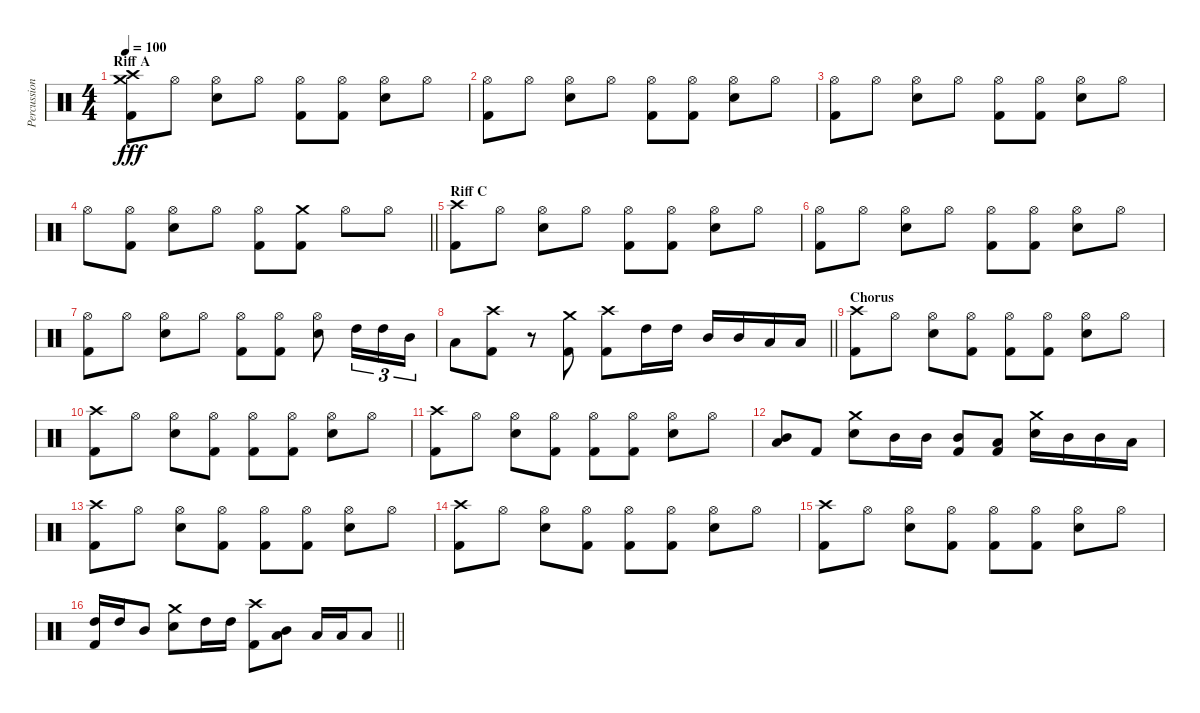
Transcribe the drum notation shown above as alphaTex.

\track ("Percussion" "Percussion") {instrument percussion}
\staff {score}
\articulation defaults
\ts (4 4)
\section ("" "Riff A")
\tempo 100
\clef neutral
\ks c
("Crash high (hit)" "Crash medium (hit)" "Kick (hit) 2").8{dy fff} "Hi-Hat (open)".8 ("Hi-Hat (open)" "Electric Snare (hit)").8 "Hi-Hat (open)".8 ("Hi-Hat (open)" "Kick (hit) 2").8 ("Hi-Hat (open)" "Kick (hit) 2").8 ("Hi-Hat (open)" "Electric Snare (hit)").8 "Hi-Hat (open)".8 |
("Hi-Hat (open)" "Kick (hit) 2").8 "Hi-Hat (open)".8 ("Hi-Hat (open)" "Electric Snare (hit)").8 "Hi-Hat (open)".8 ("Hi-Hat (open)" "Kick (hit) 2").8 ("Hi-Hat (open)" "Kick (hit) 2").8 ("Hi-Hat (open)" "Electric Snare (hit)").8 "Hi-Hat (open)".8 |
("Hi-Hat (open)" "Kick (hit) 2").8 "Hi-Hat (open)".8 ("Hi-Hat (open)" "Electric Snare (hit)").8 "Hi-Hat (open)".8 ("Hi-Hat (open)" "Kick (hit) 2").8 ("Hi-Hat (open)" "Kick (hit) 2").8 ("Hi-Hat (open)" "Electric Snare (hit)").8 "Hi-Hat (open)".8 |
\barLineRight lightlight "Hi-Hat (open)".8
("Hi-Hat (open)" "Kick (hit) 2").8 ("Hi-Hat (open)" "Electric Snare (hit)").8 "Hi-Hat (open)".8 ("Hi-Hat (open)" "Kick (hit) 2").8 ("Crash medium (hit)" "Kick (hit) 2").8 "Hi-Hat (open)".8 "Hi-Hat (open)".8 |
\section ("" "Riff C")
("Crash high (hit)" "Kick (hit) 2").8 "Hi-Hat (open)".8 ("Hi-Hat (open)" "Electric Snare (hit)").8 "Hi-Hat (open)".8 ("Hi-Hat (open)" "Kick (hit) 2").8 ("Hi-Hat (open)" "Kick (hit) 2").8 ("Hi-Hat (open)" "Electric Snare (hit)").8 "Hi-Hat (open)".8 |
("Hi-Hat (open)" "Kick (hit) 2").8 "Hi-Hat (open)".8 ("Hi-Hat (open)" "Electric Snare (hit)").8 "Hi-Hat (open)".8 ("Hi-Hat (open)" "Kick (hit) 2").8 ("Hi-Hat (open)" "Kick (hit) 2").8 ("Hi-Hat (open)" "Electric Snare (hit)").8 "Hi-Hat (open)".8 |
("Hi-Hat (open)" "Kick (hit) 2").8 "Hi-Hat (open)".8 ("Hi-Hat (open)" "Electric Snare (hit)").8 "Hi-Hat (open)".8 ("Hi-Hat (open)" "Kick (hit) 2").8 ("Hi-Hat (open)" "Kick (hit) 2").8 ("Hi-Hat (open)" "Electric Snare (hit)").8 "High Tom (hit)".16{tu (3 2)} "High Tom (hit)".16{tu (3 2)} "Mid Tom (hit)".16{tu (3 2)} |
\barLineRight lightlight "Low Tom (hit)".8
("Crash high (hit)" "Kick (hit) 2").8 r.8 ("Crash medium (hit)" "Kick (hit) 2").8 ("Crash high (hit)" "Kick (hit) 2").8 "High Tom (hit)".16 "High Tom (hit)".16 "Mid Tom (hit)".16 "Mid Tom (hit)".16 "Low Tom (hit)".16 "Low Tom (hit)".16 |
\section ("" "Chorus")
("Crash high (hit)" "Kick (hit) 2").8 "Hi-Hat (open)".8 ("Hi-Hat (open)" "Electric Snare (hit)").8 ("Hi-Hat (open)" "Kick (hit) 2").8 ("Hi-Hat (open)" "Kick (hit) 2").8 ("Hi-Hat (open)" "Kick (hit) 2").8 ("Hi-Hat (open)" "Electric Snare (hit)").8 "Hi-Hat (open)".8 |
("Crash high (hit)" "Kick (hit) 2").8 "Hi-Hat (open)".8 ("Hi-Hat (open)" "Electric Snare (hit)").8 ("Hi-Hat (open)" "Kick (hit) 2").8 ("Hi-Hat (open)" "Kick (hit) 2").8 ("Hi-Hat (open)" "Kick (hit) 2").8 ("Hi-Hat (open)" "Electric Snare (hit)").8 "Hi-Hat (open)".8 |
("Crash high (hit)" "Kick (hit) 2").8 "Hi-Hat (open)".8 ("Hi-Hat (open)" "Electric Snare (hit)").8 ("Hi-Hat (open)" "Kick (hit) 2").8 ("Hi-Hat (open)" "Kick (hit) 2").8 ("Hi-Hat (open)" "Kick (hit) 2").8 ("Hi-Hat (open)" "Electric Snare (hit)").8 "Hi-Hat (open)".8 |
("Mid Tom (hit)" "Low Tom (hit)").8 "Kick (hit) 2".8 ("Crash medium (hit)" "Electric Snare (hit)").8 "Mid Tom (hit)".16 "Mid Tom (hit)".16 ("Mid Tom (hit)" "Kick (hit) 2").8 ("Low Tom (hit)" "Kick (hit) 2").8 ("Crash medium (hit)" "Electric Snare (hit)").16 "Mid Tom (hit)".16 "Mid Tom (hit)".16 "Low Tom (hit)".16 |
("Crash high (hit)" "Kick (hit) 2").8 "Hi-Hat (open)".8 ("Hi-Hat (open)" "Electric Snare (hit)").8 ("Hi-Hat (open)" "Kick (hit) 2").8 ("Hi-Hat (open)" "Kick (hit) 2").8 ("Hi-Hat (open)" "Kick (hit) 2").8 ("Hi-Hat (open)" "Electric Snare (hit)").8 "Hi-Hat (open)".8 |
("Crash high (hit)" "Kick (hit) 2").8 "Hi-Hat (open)".8 ("Hi-Hat (open)" "Electric Snare (hit)").8 ("Hi-Hat (open)" "Kick (hit) 2").8 ("Hi-Hat (open)" "Kick (hit) 2").8 ("Hi-Hat (open)" "Kick (hit) 2").8 ("Hi-Hat (open)" "Electric Snare (hit)").8 "Hi-Hat (open)".8 |
("Crash high (hit)" "Kick (hit) 2").8 "Hi-Hat (open)".8 ("Hi-Hat (open)" "Electric Snare (hit)").8 ("Hi-Hat (open)" "Kick (hit) 2").8 ("Hi-Hat (open)" "Kick (hit) 2").8 ("Hi-Hat (open)" "Kick (hit) 2").8 ("Hi-Hat (open)" "Electric Snare (hit)").8 "Hi-Hat (open)".8 |
\barLineRight lightlight
("High Tom (hit)" "Kick (hit) 2").16 "High Tom (hit)".16 "Mid Tom (hit)".8 ("Crash medium (hit)" "Electric Snare (hit)").8 "High Tom (hit)".16 "High Tom (hit)".16 ("Crash high (hit)" "Kick (hit) 2").8 ("Mid Tom (hit)" "Low Tom (hit)").8 "Low Tom (hit)".16 "Low Tom (hit)".16 "Low Tom (hit)".8
